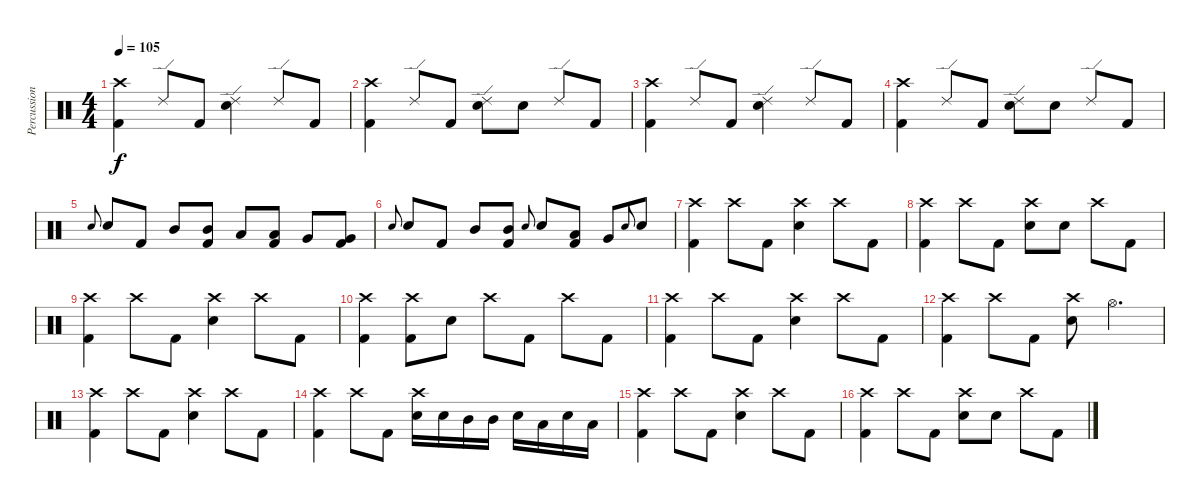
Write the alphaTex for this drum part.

\track ("Percussion" "Percussion") {instrument percussion}
\staff {score}
\articulation defaults
\ts (4 4)
\tempo 105
\clef neutral
\ks c
("Crash high (hit)" "Kick (hit) 2").4{dy f} "Ride (edge) 2".8 "Kick (hit) 2".8 ("Ride (edge) 2" "Electric Snare (hit)").4 "Ride (edge) 2".8 "Kick (hit) 2".8 |
("Crash high (hit)" "Kick (hit) 2").4 "Ride (edge) 2".8 "Kick (hit) 2".8 ("Ride (edge) 2" "Electric Snare (hit)").8 "Electric Snare (hit)".8 "Ride (edge) 2".8 "Kick (hit) 2".8 |
("Crash high (hit)" "Kick (hit) 2").4 "Ride (edge) 2".8 "Kick (hit) 2".8 ("Ride (edge) 2" "Electric Snare (hit)").4 "Ride (edge) 2".8 "Kick (hit) 2".8 |
("Crash high (hit)" "Kick (hit) 2").4 "Ride (edge) 2".8 "Kick (hit) 2".8 ("Ride (edge) 2" "Electric Snare (hit)").8 "Electric Snare (hit)".8 "Ride (edge) 2".8 "Kick (hit) 2".8 |
"Electric Snare (hit)".8{gr onbeat} "Electric Snare (hit)".8 "Kick (hit) 2".8 "Mid Tom (hit)".8 ("Mid Tom (hit)" "Kick (hit) 2").8 "Low Tom (hit)".8 ("Low Tom (hit)" "Kick (hit) 2").8 "Very Low Tom (hit)".8 ("Very Low Tom (hit)" "Kick (hit) 2").8 |
"Electric Snare (hit)".8{gr onbeat} "Electric Snare (hit)".8 "Kick (hit) 2".8 "Mid Tom (hit)".8 ("Mid Tom (hit)" "Kick (hit) 2").8 "Electric Snare (hit)".8{gr onbeat} "Electric Snare (hit)".8 ("Low Tom (hit)" "Kick (hit) 2").8 "Very Low Tom (hit)".8 "Electric Snare (hit)".8{gr onbeat} "Electric Snare (hit)".8 |
("Crash high (hit)" "Kick (hit) 2").4 "Crash high (hit)".8 "Kick (hit) 2".8 ("Crash high (hit)" "Electric Snare (hit)").4 "Crash high (hit)".8 "Kick (hit) 2".8 |
("Crash high (hit)" "Kick (hit) 2").4 "Crash high (hit)".8 "Kick (hit) 2".8 ("Crash high (hit)" "Electric Snare (hit)").8 "Electric Snare (hit)".8 "Crash high (hit)".8 "Kick (hit) 2".8 |
("Crash high (hit)" "Kick (hit) 2").4 "Crash high (hit)".8 "Kick (hit) 2".8 ("Crash high (hit)" "Electric Snare (hit)").4 "Crash high (hit)".8 "Kick (hit) 2".8 |
("Crash high (hit)" "Kick (hit) 2").4 ("Crash high (hit)" "Kick (hit) 2").8 "Electric Snare (hit)".8 "Crash high (hit)".8 "Kick (hit) 2".8 "Crash high (hit)".8 "Kick (hit) 2".8 |
("Crash high (hit)" "Kick (hit) 2").4 "Crash high (hit)".8 "Kick (hit) 2".8 ("Crash high (hit)" "Electric Snare (hit)").4 "Crash high (hit)".8 "Kick (hit) 2".8 |
("Crash high (hit)" "Kick (hit) 2").4 "Crash high (hit)".8 "Kick (hit) 2".8 ("Crash high (hit)" "Electric Snare (hit)").8 "Hi-Hat (open)".4{d} |
("Crash high (hit)" "Kick (hit) 2").4 "Crash high (hit)".8 "Kick (hit) 2".8 ("Crash high (hit)" "Electric Snare (hit)").4 "Crash high (hit)".8 "Kick (hit) 2".8 |
("Crash high (hit)" "Kick (hit) 2").4 "Crash high (hit)".8 "Kick (hit) 2".8 ("Crash high (hit)" "Electric Snare (hit)").16 "Electric Snare (hit)".16 "Mid Tom (hit)".16 "Mid Tom (hit)".16 "Electric Snare (hit)".16 "Low Tom (hit)".16 "Electric Snare (hit)".16 "Low Tom (hit)".16 |
("Crash high (hit)" "Kick (hit) 2").4 "Crash high (hit)".8 "Kick (hit) 2".8 ("Crash high (hit)" "Electric Snare (hit)").4 "Crash high (hit)".8 "Kick (hit) 2".8 |
("Crash high (hit)" "Kick (hit) 2").4 "Crash high (hit)".8 "Kick (hit) 2".8 ("Crash high (hit)" "Electric Snare (hit)").8 "Electric Snare (hit)".8 "Crash high (hit)".8 "Kick (hit) 2".8
